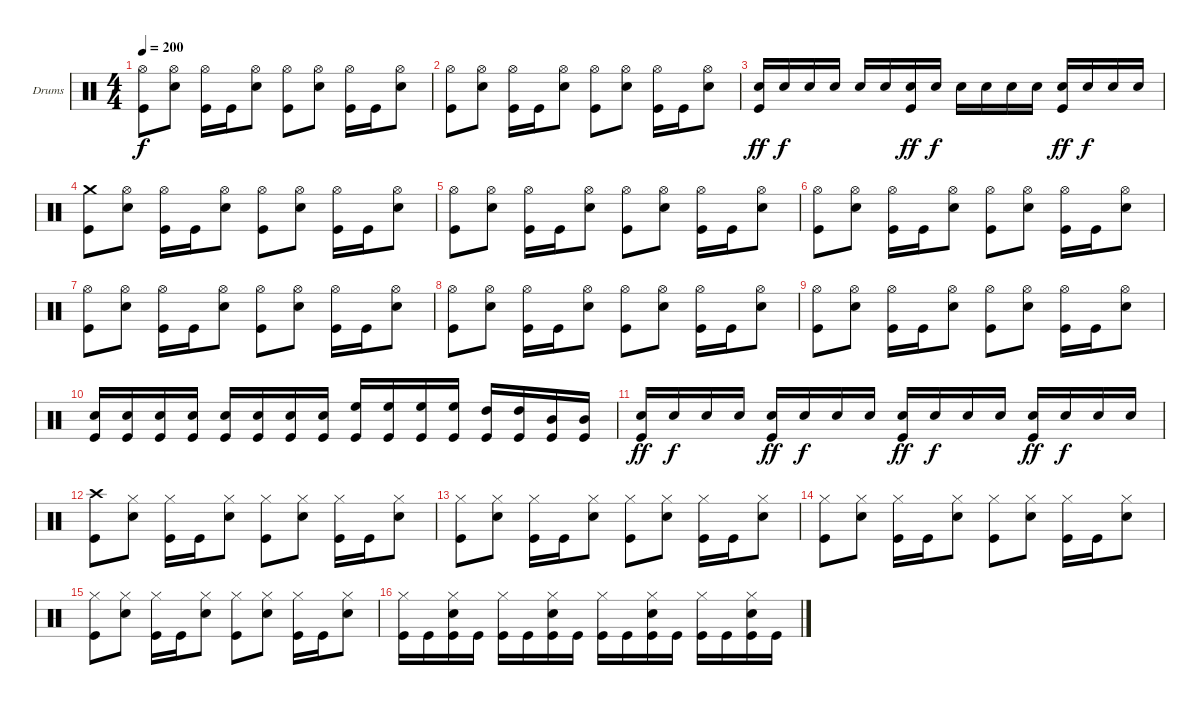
\bracketExtendMode groupsimilarinstruments
\firstSystemTrackNameOrientation horizontal
\otherSystemsTrackNameOrientation horizontal
\track ("Drumkit" "Drums") {instrument percussion}
\staff {score}
\articulation defaults
\ts (4 4)
\tempo 200
\clef neutral
\ks aminor
("Kick (hit)" "Hi-Hat (open)").8{dy f} ("Snare (hit) 2" "Hi-Hat (open)").8 ("Kick (hit)" "Hi-Hat (open)").16 "Kick (hit)".16 ("Snare (hit) 2" "Hi-Hat (open)").8 ("Kick (hit)" "Hi-Hat (open)").8 ("Snare (hit) 2" "Hi-Hat (open)").8 ("Kick (hit)" "Hi-Hat (open)").16 "Kick (hit)".16 ("Snare (hit) 2" "Hi-Hat (open)").8 |
("Kick (hit)" "Hi-Hat (open)").8 ("Snare (hit) 2" "Hi-Hat (open)").8 ("Kick (hit)" "Hi-Hat (open)").16 "Kick (hit)".16 ("Snare (hit) 2" "Hi-Hat (open)").8 ("Kick (hit)" "Hi-Hat (open)").8 ("Snare (hit) 2" "Hi-Hat (open)").8 ("Kick (hit)" "Hi-Hat (open)").16 "Kick (hit)".16 ("Snare (hit) 2" "Hi-Hat (open)").8 |
("Kick (hit)" "Snare (hit) 2").16{dy ff} "Snare (hit) 2".16{dy f} "Snare (hit) 2".16 "Snare (hit) 2".16 "Snare (hit) 2".16 "Snare (hit) 2".16 ("Kick (hit)" "Snare (hit) 2").16{dy ff} "Snare (hit) 2".16{dy f} "Snare (hit) 2".16 "Snare (hit) 2".16 "Snare (hit) 2".16 "Snare (hit) 2".16 ("Kick (hit)" "Snare (hit) 2").16{dy ff} "Snare (hit) 2".16{dy f} "Snare (hit) 2".16 "Snare (hit) 2".16 |
("Kick (hit)" "Crash medium (hit)").8 ("Snare (hit) 2" "Hi-Hat (open)").8 ("Kick (hit)" "Hi-Hat (open)").16 "Kick (hit)".16 ("Snare (hit) 2" "Hi-Hat (open)").8 ("Kick (hit)" "Hi-Hat (open)").8 ("Snare (hit) 2" "Hi-Hat (open)").8 ("Kick (hit)" "Hi-Hat (open)").16 "Kick (hit)".16 ("Snare (hit) 2" "Hi-Hat (open)").8 |
("Kick (hit)" "Hi-Hat (open)").8 ("Snare (hit) 2" "Hi-Hat (open)").8 ("Kick (hit)" "Hi-Hat (open)").16 "Kick (hit)".16 ("Snare (hit) 2" "Hi-Hat (open)").8 ("Kick (hit)" "Hi-Hat (open)").8 ("Snare (hit) 2" "Hi-Hat (open)").8 ("Kick (hit)" "Hi-Hat (open)").16 "Kick (hit)".16 ("Snare (hit) 2" "Hi-Hat (open)").8 |
("Kick (hit)" "Hi-Hat (open)").8 ("Snare (hit) 2" "Hi-Hat (open)").8 ("Kick (hit)" "Hi-Hat (open)").16 "Kick (hit)".16 ("Snare (hit) 2" "Hi-Hat (open)").8 ("Kick (hit)" "Hi-Hat (open)").8 ("Snare (hit) 2" "Hi-Hat (open)").8 ("Kick (hit)" "Hi-Hat (open)").16 "Kick (hit)".16 ("Snare (hit) 2" "Hi-Hat (open)").8 |
("Kick (hit)" "Hi-Hat (open)").8 ("Snare (hit) 2" "Hi-Hat (open)").8 ("Kick (hit)" "Hi-Hat (open)").16 "Kick (hit)".16 ("Snare (hit) 2" "Hi-Hat (open)").8 ("Kick (hit)" "Hi-Hat (open)").8 ("Snare (hit) 2" "Hi-Hat (open)").8 ("Kick (hit)" "Hi-Hat (open)").16 "Kick (hit)".16 ("Snare (hit) 2" "Hi-Hat (open)").8 |
\section ("" "")
("Kick (hit)" "Hi-Hat (open)").8 ("Snare (hit) 2" "Hi-Hat (open)").8 ("Kick (hit)" "Hi-Hat (open)").16 "Kick (hit)".16 ("Snare (hit) 2" "Hi-Hat (open)").8 ("Kick (hit)" "Hi-Hat (open)").8 ("Snare (hit) 2" "Hi-Hat (open)").8 ("Kick (hit)" "Hi-Hat (open)").16 "Kick (hit)".16 ("Snare (hit) 2" "Hi-Hat (open)").8 |
("Kick (hit)" "Hi-Hat (open)").8 ("Snare (hit) 2" "Hi-Hat (open)").8 ("Kick (hit)" "Hi-Hat (open)").16 "Kick (hit)".16 ("Snare (hit) 2" "Hi-Hat (open)").8 ("Kick (hit)" "Hi-Hat (open)").8 ("Snare (hit) 2" "Hi-Hat (open)").8 ("Kick (hit)" "Hi-Hat (open)").16 "Kick (hit)".16 ("Snare (hit) 2" "Hi-Hat (open)").8 |
("Kick (hit)" "Snare (hit) 2").16 ("Kick (hit)" "Snare (hit) 2").16 ("Kick (hit)" "Snare (hit) 2").16 ("Kick (hit)" "Snare (hit) 2").16 ("Kick (hit)" "Snare (hit) 2").16 ("Kick (hit)" "Snare (hit) 2").16 ("Kick (hit)" "Snare (hit) 2").16 ("Kick (hit)" "Snare (hit) 2").16 ("Kick (hit)" "High Floor Tom (hit)").16 ("Kick (hit)" "High Floor Tom (hit)").16 ("Kick (hit)" "High Floor Tom (hit)").16 ("Kick (hit)" "High Floor Tom (hit)").16 ("Kick (hit)" "High Tom (hit)").16 ("Kick (hit)" "High Tom (hit)").16 ("Kick (hit)" "Mid Tom (hit)").16 ("Kick (hit)" "Mid Tom (hit)").16 |
("Kick (hit)" "Snare (hit) 2").16{dy ff} "Snare (hit) 2".16{dy f} "Snare (hit) 2".16 "Snare (hit) 2".16 ("Kick (hit)" "Snare (hit) 2").16{dy ff} "Snare (hit) 2".16{dy f} "Snare (hit) 2".16 "Snare (hit) 2".16 ("Kick (hit)" "Snare (hit) 2").16{dy ff} "Snare (hit) 2".16{dy f} "Snare (hit) 2".16 "Snare (hit) 2".16 ("Kick (hit)" "Snare (hit) 2").16{dy ff} "Snare (hit) 2".16{dy f} "Snare (hit) 2".16 "Snare (hit) 2".16 |
\section ("" "")
("Kick (hit)" "Crash high (hit)").8 ("Snare (hit) 2" "Hi-Hat (closed)").8 ("Kick (hit)" "Hi-Hat (closed)").16 "Kick (hit)".16 ("Snare (hit) 2" "Hi-Hat (closed)").8 ("Kick (hit)" "Hi-Hat (closed)").8 ("Snare (hit) 2" "Hi-Hat (closed)").8 ("Kick (hit)" "Hi-Hat (closed)").16 "Kick (hit)".16 ("Snare (hit) 2" "Hi-Hat (closed)").8 |
("Kick (hit)" "Hi-Hat (closed)").8 ("Snare (hit) 2" "Hi-Hat (closed)").8 ("Kick (hit)" "Hi-Hat (closed)").16 "Kick (hit)".16 ("Snare (hit) 2" "Hi-Hat (closed)").8 ("Kick (hit)" "Hi-Hat (closed)").8 ("Snare (hit) 2" "Hi-Hat (closed)").8 ("Kick (hit)" "Hi-Hat (closed)").16 "Kick (hit)".16 ("Snare (hit) 2" "Hi-Hat (closed)").8 |
("Kick (hit)" "Hi-Hat (closed)").8 ("Snare (hit) 2" "Hi-Hat (closed)").8 ("Kick (hit)" "Hi-Hat (closed)").16 "Kick (hit)".16 ("Snare (hit) 2" "Hi-Hat (closed)").8 ("Kick (hit)" "Hi-Hat (closed)").8 ("Snare (hit) 2" "Hi-Hat (closed)").8 ("Kick (hit)" "Hi-Hat (closed)").16 "Kick (hit)".16 ("Snare (hit) 2" "Hi-Hat (closed)").8 |
("Kick (hit)" "Hi-Hat (closed)").8 ("Snare (hit) 2" "Hi-Hat (closed)").8 ("Kick (hit)" "Hi-Hat (closed)").16 "Kick (hit)".16 ("Snare (hit) 2" "Hi-Hat (closed)").8 ("Kick (hit)" "Hi-Hat (closed)").8 ("Snare (hit) 2" "Hi-Hat (closed)").8 ("Kick (hit)" "Hi-Hat (closed)").16 "Kick (hit)".16 ("Snare (hit) 2" "Hi-Hat (closed)").8 |
("Kick (hit)" "Hi-Hat (closed)").16 "Kick (hit)".16 ("Kick (hit)" "Snare (hit) 2" "Hi-Hat (closed)").16 "Kick (hit)".16 ("Kick (hit)" "Hi-Hat (closed)").16 "Kick (hit)".16 ("Kick (hit)" "Snare (hit) 2" "Hi-Hat (closed)").16 "Kick (hit)".16 ("Kick (hit)" "Hi-Hat (closed)").16 "Kick (hit)".16 ("Kick (hit)" "Snare (hit) 2" "Hi-Hat (closed)").16 "Kick (hit)".16 ("Kick (hit)" "Hi-Hat (closed)").16 "Kick (hit)".16 ("Kick (hit)" "Snare (hit) 2" "Hi-Hat (closed)").16 "Kick (hit)".16
